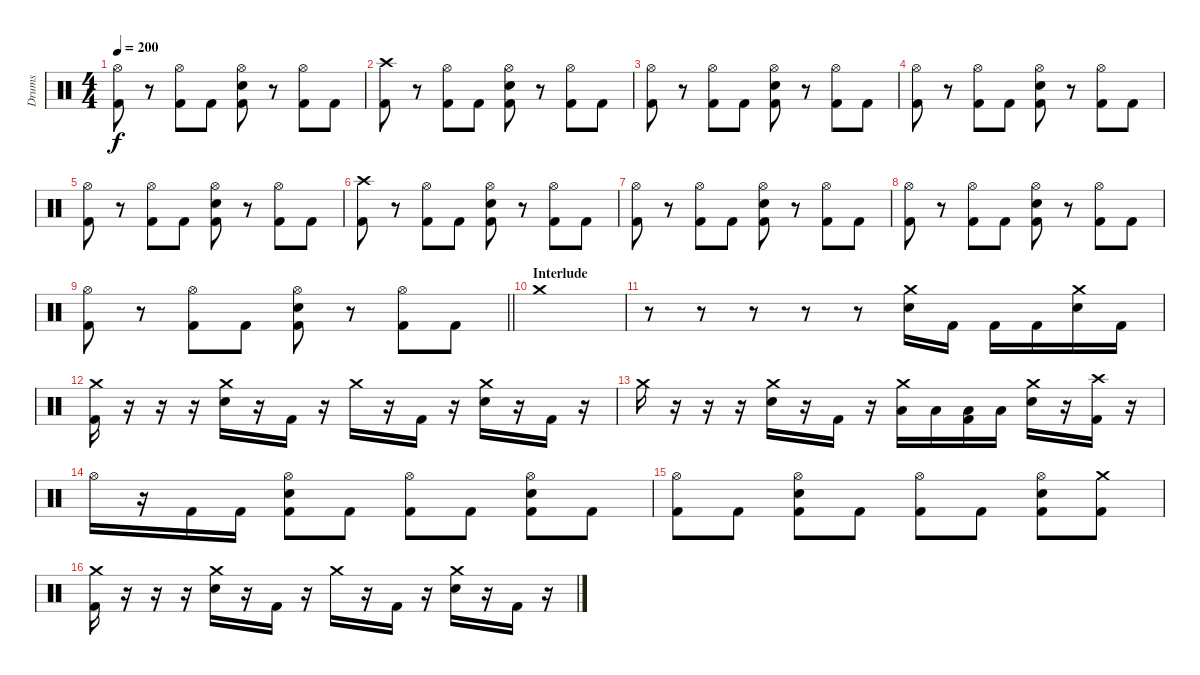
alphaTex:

\track ("Drums" "Drums") {instrument percussion}
\staff {score}
\articulation defaults
\ts (4 4)
\tempo 200
\clef neutral
\ks c
("Hi-Hat (open)" "Kick (hit) 2").8{dy f} r.8 ("Hi-Hat (open)" "Kick (hit) 2").8 "Kick (hit) 2".8 ("Hi-Hat (open)" "Electric Snare (hit)" "Kick (hit) 2").8 r.8 ("Hi-Hat (open)" "Kick (hit) 2").8 "Kick (hit) 2".8 |
("Crash high (hit)" "Kick (hit) 2").8 r.8 ("Hi-Hat (open)" "Kick (hit) 2").8 "Kick (hit) 2".8 ("Hi-Hat (open)" "Electric Snare (hit)" "Kick (hit) 2").8 r.8 ("Hi-Hat (open)" "Kick (hit) 2").8 "Kick (hit) 2".8 |
("Hi-Hat (open)" "Kick (hit) 2").8 r.8 ("Hi-Hat (open)" "Kick (hit) 2").8 "Kick (hit) 2".8 ("Hi-Hat (open)" "Electric Snare (hit)" "Kick (hit) 2").8 r.8 ("Hi-Hat (open)" "Kick (hit) 2").8 "Kick (hit) 2".8 |
("Hi-Hat (open)" "Kick (hit) 2").8 r.8 ("Hi-Hat (open)" "Kick (hit) 2").8 "Kick (hit) 2".8 ("Hi-Hat (open)" "Electric Snare (hit)" "Kick (hit) 2").8 r.8 ("Hi-Hat (open)" "Kick (hit) 2").8 "Kick (hit) 2".8 |
("Hi-Hat (open)" "Kick (hit) 2").8 r.8 ("Hi-Hat (open)" "Kick (hit) 2").8 "Kick (hit) 2".8 ("Hi-Hat (open)" "Electric Snare (hit)" "Kick (hit) 2").8 r.8 ("Hi-Hat (open)" "Kick (hit) 2").8 "Kick (hit) 2".8 |
("Crash high (hit)" "Kick (hit) 2").8 r.8 ("Hi-Hat (open)" "Kick (hit) 2").8 "Kick (hit) 2".8 ("Hi-Hat (open)" "Electric Snare (hit)" "Kick (hit) 2").8 r.8 ("Hi-Hat (open)" "Kick (hit) 2").8 "Kick (hit) 2".8 |
("Hi-Hat (open)" "Kick (hit) 2").8 r.8 ("Hi-Hat (open)" "Kick (hit) 2").8 "Kick (hit) 2".8 ("Hi-Hat (open)" "Electric Snare (hit)" "Kick (hit) 2").8 r.8 ("Hi-Hat (open)" "Kick (hit) 2").8 "Kick (hit) 2".8 |
("Hi-Hat (open)" "Kick (hit) 2").8 r.8 ("Hi-Hat (open)" "Kick (hit) 2").8 "Kick (hit) 2".8 ("Hi-Hat (open)" "Electric Snare (hit)" "Kick (hit) 2").8 r.8 ("Hi-Hat (open)" "Kick (hit) 2").8 "Kick (hit) 2".8 |
\barLineRight lightlight
("Hi-Hat (open)" "Kick (hit) 2").8 r.8 ("Hi-Hat (open)" "Kick (hit) 2").8 "Kick (hit) 2".8 ("Hi-Hat (open)" "Electric Snare (hit)" "Kick (hit) 2").8 r.8 ("Hi-Hat (open)" "Kick (hit) 2").8 "Kick (hit) 2".8 |
\section ("" "Interlude")
"Crash medium (hit)".1 |
r.8 r.8 r.8 r.8 r.8 ("Crash medium (hit)" "Electric Snare (hit)").16 "Kick (hit) 2".16 "Kick (hit) 2".16 "Kick (hit) 2".16 ("Crash medium (hit)" "Electric Snare (hit)").16 "Kick (hit) 2".16 |
("Crash medium (hit)" "Kick (hit) 2").16 r.16 r.16 r.16 ("Crash medium (hit)" "Electric Snare (hit)").16 r.16 "Kick (hit) 2".16 r.16 "Crash medium (hit)".16 r.16 "Kick (hit) 2".16 r.16 ("Crash medium (hit)" "Electric Snare (hit)").16 r.16 "Kick (hit) 2".16 r.16 |
"Crash medium (hit)".16 r.16 r.16 r.16 ("Crash medium (hit)" "Electric Snare (hit)").16 r.16 "Kick (hit) 2".16 r.16 ("Crash medium (hit)" "Low Floor Tom (hit)").16 "Low Floor Tom (hit)".16 ("Low Floor Tom (hit)" "Kick (hit) 2").16 "Low Floor Tom (hit)".16 ("Crash medium (hit)" "Electric Snare (hit)").16 r.16 ("Crash high (hit)" "Kick (hit) 2").16 r.16 |
"Hi-Hat (open)".16 r.16 "Kick (hit) 2".16 "Kick (hit) 2".16 ("Hi-Hat (open)" "Electric Snare (hit)" "Kick (hit) 2").8 "Kick (hit) 2".8 ("Hi-Hat (open)" "Kick (hit) 2").8 "Kick (hit) 2".8 ("Hi-Hat (open)" "Electric Snare (hit)" "Kick (hit) 2").8 "Kick (hit) 2".8 |
("Hi-Hat (open)" "Kick (hit) 2").8 "Kick (hit) 2".8 ("Hi-Hat (open)" "Electric Snare (hit)" "Kick (hit) 2").8 "Kick (hit) 2".8 ("Hi-Hat (open)" "Kick (hit) 2").8 "Kick (hit) 2".8 ("Hi-Hat (open)" "Electric Snare (hit)" "Kick (hit) 2").8 ("Crash medium (hit)" "Kick (hit) 2").8 |
("Crash medium (hit)" "Kick (hit) 2").16 r.16 r.16 r.16 ("Crash medium (hit)" "Snare (hit) 2").16 r.16 "Kick (hit) 2".16 r.16 "Crash medium (hit)".16 r.16 "Kick (hit) 2".16 r.16 ("Crash medium (hit)" "Snare (hit) 2").16 r.16 "Kick (hit) 2".16 r.16
